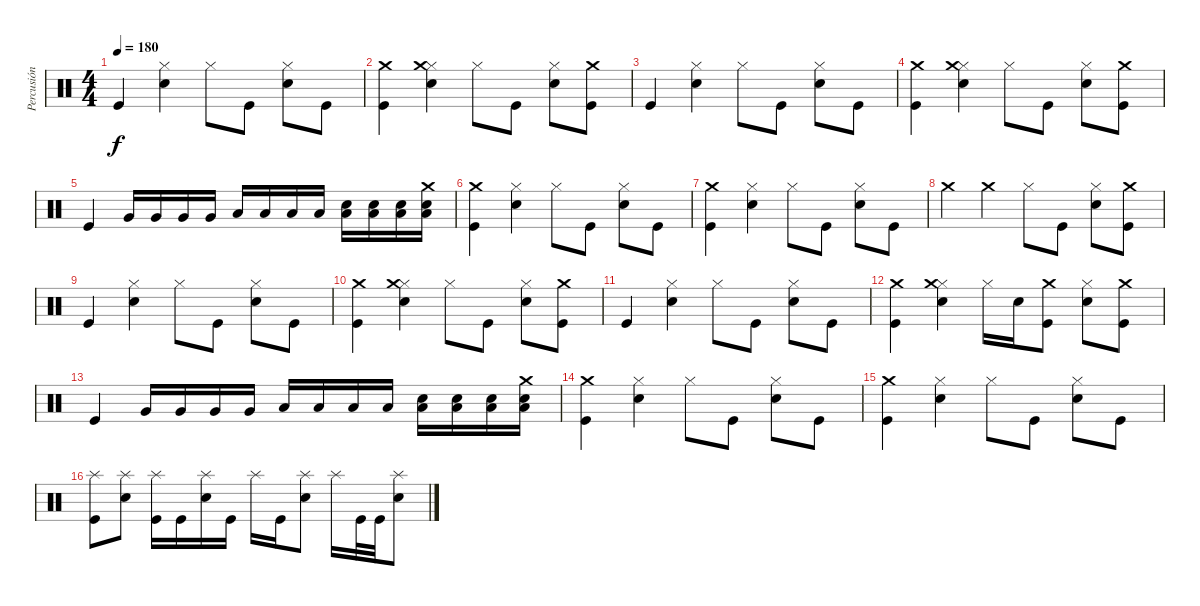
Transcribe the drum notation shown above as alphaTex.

\track ("Percusión" "Percusión") {instrument percussion}
\staff {score}
\articulation defaults
\ts (4 4)
\tempo 180
\clef neutral
\ks c "Kick (hit)".4{dy f}
("Snare (hit) 2" "Hi-Hat (closed)").4 "Hi-Hat (closed)".8 "Kick (hit)".8 ("Snare (hit) 2" "Hi-Hat (closed)").8 "Kick (hit)".8 |
("Kick (hit)" "Crash medium (hit)").4 ("Snare (hit) 2" "Hi-Hat (closed)" "Crash medium (hit)").4 "Hi-Hat (closed)".8 "Kick (hit)".8 ("Snare (hit) 2" "Hi-Hat (closed)").8 ("Kick (hit)" "Crash medium (hit)").8 |
"Kick (hit)".4 ("Snare (hit) 2" "Hi-Hat (closed)").4 "Hi-Hat (closed)".8 "Kick (hit)".8 ("Snare (hit) 2" "Hi-Hat (closed)").8 "Kick (hit)".8 |
("Kick (hit)" "Crash medium (hit)").4 ("Snare (hit) 2" "Hi-Hat (closed)" "Crash medium (hit)").4 "Hi-Hat (closed)".8 "Kick (hit)".8 ("Snare (hit) 2" "Hi-Hat (closed)").8 ("Kick (hit)" "Crash medium (hit)").8 |
"Kick (hit)".4 "Very Low Tom (hit)".16 "Very Low Tom (hit)".16 "Very Low Tom (hit)".16 "Very Low Tom (hit)".16 "Low Tom (hit)".16 "Low Tom (hit)".16 "Low Tom (hit)".16 "Low Tom (hit)".16 ("Electric Snare (hit)" "Low Tom (hit)").16 ("Electric Snare (hit)" "Low Tom (hit)").16 ("Electric Snare (hit)" "Low Tom (hit)").16 ("Electric Snare (hit)" "Low Tom (hit)" "Crash medium (hit)").16 |
("Kick (hit)" "Crash medium (hit)").4 ("Snare (hit) 2" "Hi-Hat (closed)").4 "Hi-Hat (closed)".8 "Kick (hit)".8 ("Snare (hit) 2" "Hi-Hat (closed)").8 "Kick (hit)".8 |
("Kick (hit)" "Crash medium (hit)").4 ("Snare (hit) 2" "Hi-Hat (closed)").4 "Hi-Hat (closed)".8 "Kick (hit)".8 ("Snare (hit) 2" "Hi-Hat (closed)").8 "Kick (hit)".8 |
"Crash medium (hit)".4 "Crash medium (hit)".4 "Hi-Hat (closed)".8 "Kick (hit)".8 ("Snare (hit) 2" "Hi-Hat (closed)").8 ("Kick (hit)" "Crash medium (hit)").8 |
"Kick (hit)".4 ("Snare (hit) 2" "Hi-Hat (closed)").4 "Hi-Hat (closed)".8 "Kick (hit)".8 ("Snare (hit) 2" "Hi-Hat (closed)").8 "Kick (hit)".8 |
("Kick (hit)" "Crash medium (hit)").4 ("Snare (hit) 2" "Hi-Hat (closed)" "Crash medium (hit)").4 "Hi-Hat (closed)".8 "Kick (hit)".8 ("Snare (hit) 2" "Hi-Hat (closed)").8 ("Kick (hit)" "Crash medium (hit)").8 |
"Kick (hit)".4 ("Snare (hit) 2" "Hi-Hat (closed)").4 "Hi-Hat (closed)".8 "Kick (hit)".8 ("Snare (hit) 2" "Hi-Hat (closed)").8 "Kick (hit)".8 |
("Kick (hit)" "Crash medium (hit)").4 ("Snare (hit) 2" "Hi-Hat (closed)" "Crash medium (hit)").4 "Hi-Hat (closed)".16 "Snare (hit) 2".16 ("Kick (hit)" "Crash medium (hit)").8 ("Snare (hit) 2" "Hi-Hat (closed)").8 ("Kick (hit)" "Crash medium (hit)").8 |
"Kick (hit)".4 "Very Low Tom (hit)".16 "Very Low Tom (hit)".16 "Very Low Tom (hit)".16 "Very Low Tom (hit)".16 "Low Tom (hit)".16 "Low Tom (hit)".16 "Low Tom (hit)".16 "Low Tom (hit)".16 ("Electric Snare (hit)" "Low Tom (hit)").16 ("Electric Snare (hit)" "Low Tom (hit)").16 ("Electric Snare (hit)" "Low Tom (hit)").16 ("Electric Snare (hit)" "Low Tom (hit)" "Crash medium (hit)").16 |
("Kick (hit)" "Crash medium (hit)").4 ("Snare (hit) 2" "Hi-Hat (closed)").4 "Hi-Hat (closed)".8 "Kick (hit)".8 ("Snare (hit) 2" "Hi-Hat (closed)").8 "Kick (hit)".8 |
("Kick (hit)" "Crash medium (hit)").4 ("Snare (hit) 2" "Hi-Hat (closed)").4 "Hi-Hat (closed)".8 "Kick (hit)".8 ("Snare (hit) 2" "Hi-Hat (closed)").8 "Kick (hit)".8 |
("Splash (hit)" "Kick (hit)").8 ("Splash (hit)" "Electric Snare (hit)").8 ("Splash (hit)" "Kick (hit)").16 "Kick (hit)".16 ("Splash (hit)" "Electric Snare (hit)").16 "Kick (hit)".16 "Splash (hit)".16 "Kick (hit)".16 ("Splash (hit)" "Electric Snare (hit)").8 "Splash (hit)".16 "Kick (hit)".32 "Kick (hit)".32 ("Splash (hit)" "Electric Snare (hit)").8
